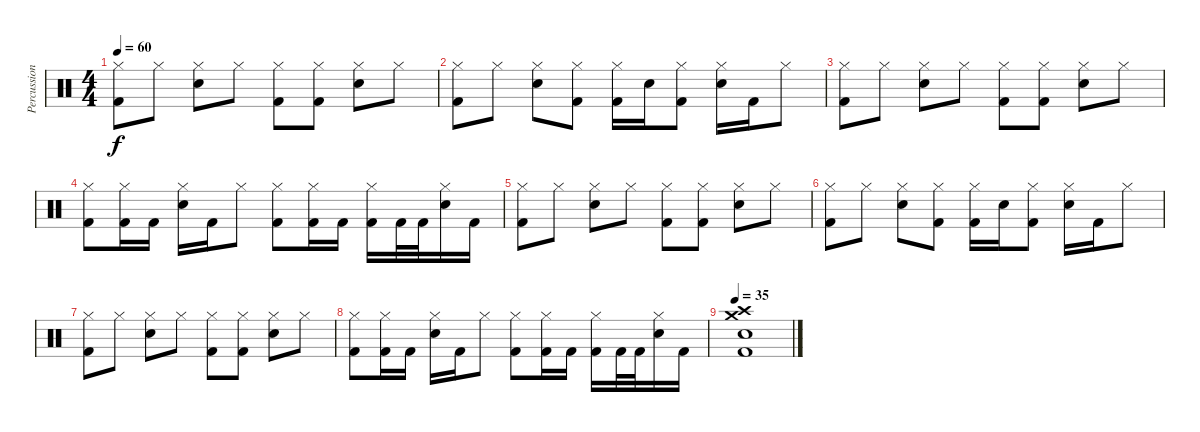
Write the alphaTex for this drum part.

\track ("Percussion" "Percussion") {instrument percussion}
\staff {score}
\articulation defaults
\ts (4 4)
\tempo 60
\clef neutral
\ks c
("Hi-Hat (closed)" "Kick (hit) 2").8{dy f} "Hi-Hat (closed)".8 ("Hi-Hat (closed)" "Snare (hit) 2").8 "Hi-Hat (closed)".8 ("Hi-Hat (closed)" "Kick (hit) 2").8 ("Hi-Hat (closed)" "Kick (hit) 2").8 ("Hi-Hat (closed)" "Snare (hit) 2").8 "Hi-Hat (closed)".8 |
("Hi-Hat (closed)" "Kick (hit) 2").8 "Hi-Hat (closed)".8 ("Hi-Hat (closed)" "Snare (hit) 2").8 ("Hi-Hat (closed)" "Kick (hit) 2").8 ("Hi-Hat (closed)" "Kick (hit) 2").16 "Snare (hit) 2".16 ("Hi-Hat (closed)" "Kick (hit) 2").8 ("Hi-Hat (closed)" "Snare (hit) 2").16 "Kick (hit) 2".16 "Hi-Hat (closed)".8 |
("Hi-Hat (closed)" "Kick (hit) 2").8 "Hi-Hat (closed)".8 ("Hi-Hat (closed)" "Snare (hit) 2").8 "Hi-Hat (closed)".8 ("Hi-Hat (closed)" "Kick (hit) 2").8 ("Hi-Hat (closed)" "Kick (hit) 2").8 ("Hi-Hat (closed)" "Snare (hit) 2").8 "Hi-Hat (closed)".8 |
("Hi-Hat (closed)" "Kick (hit) 2").8 ("Hi-Hat (closed)" "Kick (hit) 2").16 "Kick (hit) 2".16 ("Hi-Hat (closed)" "Snare (hit) 2").16 "Kick (hit) 2".16 "Hi-Hat (closed)".8 ("Hi-Hat (closed)" "Kick (hit) 2").8 ("Hi-Hat (closed)" "Kick (hit) 2").16 "Kick (hit) 2".16 ("Hi-Hat (closed)" "Kick (hit) 2").16 "Kick (hit) 2".32 "Kick (hit) 2".32 ("Hi-Hat (closed)" "Snare (hit) 2").16 "Kick (hit) 2".16 |
("Hi-Hat (closed)" "Kick (hit) 2").8{volume 16} "Hi-Hat (closed)".8 ("Hi-Hat (closed)" "Snare (hit) 2").8 "Hi-Hat (closed)".8 ("Hi-Hat (closed)" "Kick (hit) 2").8 ("Hi-Hat (closed)" "Kick (hit) 2").8 ("Hi-Hat (closed)" "Snare (hit) 2").8 "Hi-Hat (closed)".8 |
("Hi-Hat (closed)" "Kick (hit) 2").8 "Hi-Hat (closed)".8 ("Hi-Hat (closed)" "Snare (hit) 2").8 ("Hi-Hat (closed)" "Kick (hit) 2").8 ("Hi-Hat (closed)" "Kick (hit) 2").16 "Snare (hit) 2".16 ("Hi-Hat (closed)" "Kick (hit) 2").8 ("Hi-Hat (closed)" "Snare (hit) 2").16 "Kick (hit) 2".16 "Hi-Hat (closed)".8 |
("Hi-Hat (closed)" "Kick (hit) 2").8 "Hi-Hat (closed)".8 ("Hi-Hat (closed)" "Snare (hit) 2").8 "Hi-Hat (closed)".8 ("Hi-Hat (closed)" "Kick (hit) 2").8 ("Hi-Hat (closed)" "Kick (hit) 2").8 ("Hi-Hat (closed)" "Snare (hit) 2").8 "Hi-Hat (closed)".8 |
("Hi-Hat (closed)" "Kick (hit) 2").8 ("Hi-Hat (closed)" "Kick (hit) 2").16 "Kick (hit) 2".16 ("Hi-Hat (closed)" "Snare (hit) 2").16 "Kick (hit) 2".16 "Hi-Hat (closed)".8 ("Hi-Hat (closed)" "Kick (hit) 2").8 ("Hi-Hat (closed)" "Kick (hit) 2").16 "Kick (hit) 2".16 ("Hi-Hat (closed)" "Kick (hit) 2").16 "Kick (hit) 2".32 "Kick (hit) 2".32 ("Hi-Hat (closed)" "Snare (hit) 2").16 "Kick (hit) 2".16 |
\tempo 35
("Crash medium (hit)" "Crash high (hit)" "Snare (hit) 2" "Kick (hit) 2").1
